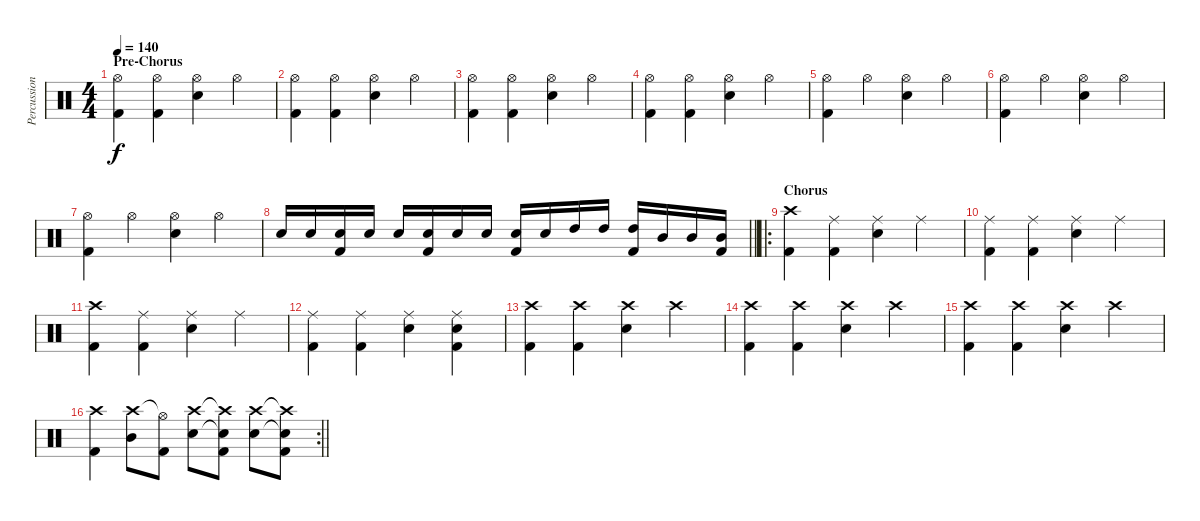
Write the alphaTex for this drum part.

\track ("Percussion" "Percussion") {instrument percussion}
\staff {score}
\articulation defaults
\ts (4 4)
\section ("" "Pre-Chorus")
\tempo 140
\clef neutral
\ks c
("Hi-Hat (open)" "Kick (hit) 2").4{dy f} ("Hi-Hat (open)" "Kick (hit) 2").4 ("Hi-Hat (open)" "Snare (hit) 2").4 "Hi-Hat (open)".4 |
("Hi-Hat (open)" "Kick (hit) 2").4 ("Hi-Hat (open)" "Kick (hit) 2").4 ("Hi-Hat (open)" "Snare (hit) 2").4 "Hi-Hat (open)".4 |
("Hi-Hat (open)" "Kick (hit) 2").4 ("Hi-Hat (open)" "Kick (hit) 2").4 ("Hi-Hat (open)" "Snare (hit) 2").4 "Hi-Hat (open)".4 |
("Hi-Hat (open)" "Kick (hit) 2").4 ("Hi-Hat (open)" "Kick (hit) 2").4 ("Hi-Hat (open)" "Snare (hit) 2").4 "Hi-Hat (open)".4 |
("Hi-Hat (open)" "Kick (hit) 2").4 "Hi-Hat (open)".4 ("Hi-Hat (open)" "Snare (hit) 2").4 "Hi-Hat (open)".4 |
("Hi-Hat (open)" "Kick (hit) 2").4 "Hi-Hat (open)".4 ("Hi-Hat (open)" "Snare (hit) 2").4 "Hi-Hat (open)".4 |
("Hi-Hat (open)" "Kick (hit) 2").4 "Hi-Hat (open)".4 ("Hi-Hat (open)" "Snare (hit) 2").4 "Hi-Hat (open)".4 |
\barLineRight lightlight "Snare (hit) 2".16 "Snare (hit) 2".16
("Kick (hit) 2" "Snare (hit) 2").16 "Snare (hit) 2".16 "Snare (hit) 2".16 ("Kick (hit) 2" "Snare (hit) 2").16 "Snare (hit) 2".16 "Snare (hit) 2".16 ("Kick (hit) 2" "Snare (hit) 2").16 "Snare (hit) 2".16 "High Tom (hit)".16 "High Tom (hit)".16 ("Kick (hit) 2" "High Tom (hit)").16 "Mid Tom (hit)".16 "Mid Tom (hit)".16 ("Kick (hit) 2" "Mid Tom (hit)").16 |
\ro
\section ("" "Chorus")
("Crash high (hit)" "Kick (hit) 2").4 ("Ride (middle)" "Kick (hit) 2").4 ("Ride (middle)" "Snare (hit) 2").4 "Ride (middle)".4 |
("Ride (middle)" "Kick (hit) 2").4 ("Ride (middle)" "Kick (hit) 2").4 ("Ride (middle)" "Snare (hit) 2").4 "Ride (middle)".4 |
("Crash high (hit)" "Kick (hit) 2").4 ("Ride (middle)" "Kick (hit) 2").4 ("Ride (middle)" "Snare (hit) 2").4 "Ride (middle)".4 |
("Ride (middle)" "Kick (hit) 2").4 ("Ride (middle)" "Kick (hit) 2").4 ("Ride (middle)" "Snare (hit) 2").4 ("Ride (middle)" "Snare (hit) 2" "Kick (hit) 2").4 |
("Crash high (hit)" "Kick (hit) 2").4 ("Crash high (hit)" "Kick (hit) 2").4 ("Crash high (hit)" "Snare (hit) 2").4 "Crash high (hit)".4 |
("Crash high (hit)" "Kick (hit) 2").4 ("Crash high (hit)" "Kick (hit) 2").4 ("Crash high (hit)" "Snare (hit) 2").4 "Crash high (hit)".4 |
("Crash high (hit)" "Kick (hit) 2").4 ("Crash high (hit)" "Kick (hit) 2").4 ("Crash high (hit)" "Snare (hit) 2").4 "Crash high (hit)".4 |
\rc 2
\barLineRight lightlight
("Crash high (hit)" "Kick (hit) 2").4 ("Crash high (hit)" "Mid Tom (hit)").8 ("Hi-Hat (open)"{t} "Kick (hit) 2").8 ("Crash high (hit)" "Snare (hit) 2").8 ("Crash high (hit)"{t} "Snare (hit) 2"{t} "Kick (hit) 2").8 ("Crash high (hit)" "Snare (hit) 2").8 ("Crash high (hit)"{t} "Snare (hit) 2"{t} "Kick (hit) 2").8
